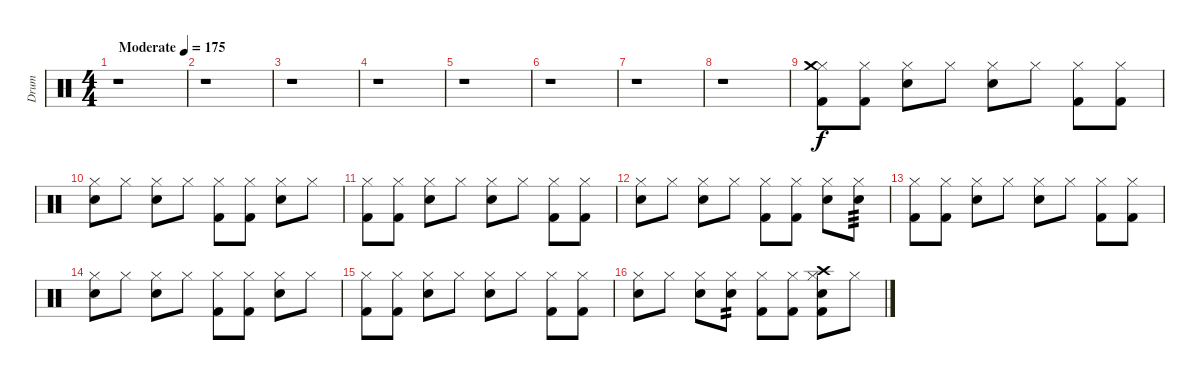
\track ("Drum" "Drum") {instrument percussion}
\staff {score}
\articulation defaults
\ts (4 4)
\tempo (175 "Moderate")
\clef neutral
\ks c
r.1{dy f} |
r.1 |
r.1 |
r.1 |
r.1 |
r.1 |
r.1 |
r.1 |
("Hi-Hat (closed)" "Crash medium (hit)" "Kick (hit) 2").8 ("Hi-Hat (closed)" "Kick (hit) 2").8 ("Hi-Hat (closed)" "Snare (hit) 2").8 "Hi-Hat (closed)".8 ("Hi-Hat (closed)" "Snare (hit) 2").8 "Hi-Hat (closed)".8 ("Hi-Hat (closed)" "Kick (hit) 2").8 ("Hi-Hat (closed)" "Kick (hit) 2").8 |
("Hi-Hat (closed)" "Snare (hit) 2").8 "Hi-Hat (closed)".8 ("Hi-Hat (closed)" "Snare (hit) 2").8 "Hi-Hat (closed)".8 ("Hi-Hat (closed)" "Kick (hit) 2").8 ("Hi-Hat (closed)" "Kick (hit) 2").8 ("Hi-Hat (closed)" "Snare (hit) 2").8 "Hi-Hat (closed)".8 |
("Hi-Hat (closed)" "Kick (hit) 2").8 ("Hi-Hat (closed)" "Kick (hit) 2").8 ("Hi-Hat (closed)" "Snare (hit) 2").8 "Hi-Hat (closed)".8 ("Hi-Hat (closed)" "Snare (hit) 2").8 "Hi-Hat (closed)".8 ("Hi-Hat (closed)" "Kick (hit) 2").8 ("Hi-Hat (closed)" "Kick (hit) 2").8 |
("Hi-Hat (closed)" "Snare (hit) 2").8 "Hi-Hat (closed)".8 ("Hi-Hat (closed)" "Snare (hit) 2").8 "Hi-Hat (closed)".8 ("Hi-Hat (closed)" "Kick (hit) 2").8 ("Hi-Hat (closed)" "Kick (hit) 2").8 ("Hi-Hat (closed)" "Snare (hit) 2").8 ("Hi-Hat (closed)" "Snare (hit) 2").8{tp 3} |
("Hi-Hat (closed)" "Kick (hit) 2").8 ("Hi-Hat (closed)" "Kick (hit) 2").8 ("Hi-Hat (closed)" "Snare (hit) 2").8 "Hi-Hat (closed)".8 ("Hi-Hat (closed)" "Snare (hit) 2").8 "Hi-Hat (closed)".8 ("Hi-Hat (closed)" "Kick (hit) 2").8 ("Hi-Hat (closed)" "Kick (hit) 2").8 |
("Hi-Hat (closed)" "Snare (hit) 2").8 "Hi-Hat (closed)".8 ("Hi-Hat (closed)" "Snare (hit) 2").8 "Hi-Hat (closed)".8 ("Hi-Hat (closed)" "Kick (hit) 2").8 ("Hi-Hat (closed)" "Kick (hit) 2").8 ("Hi-Hat (closed)" "Snare (hit) 2").8 "Hi-Hat (closed)".8 |
("Hi-Hat (closed)" "Kick (hit) 2").8 ("Hi-Hat (closed)" "Kick (hit) 2").8 ("Hi-Hat (closed)" "Snare (hit) 2").8 "Hi-Hat (closed)".8 ("Hi-Hat (closed)" "Snare (hit) 2").8 "Hi-Hat (closed)".8 ("Hi-Hat (closed)" "Kick (hit) 2").8 ("Hi-Hat (closed)" "Kick (hit) 2").8 |
("Hi-Hat (closed)" "Snare (hit) 2").8 "Hi-Hat (closed)".8 ("Hi-Hat (closed)" "Snare (hit) 2").8 ("Hi-Hat (closed)" "Snare (hit) 2").8{tp 2} ("Hi-Hat (closed)" "Kick (hit) 2").8 ("Hi-Hat (closed)" "Kick (hit) 2").8 ("Hi-Hat (closed)" "Crash high (hit)" "Snare (hit) 2" "Kick (hit) 2").8 "Hi-Hat (closed)".8
